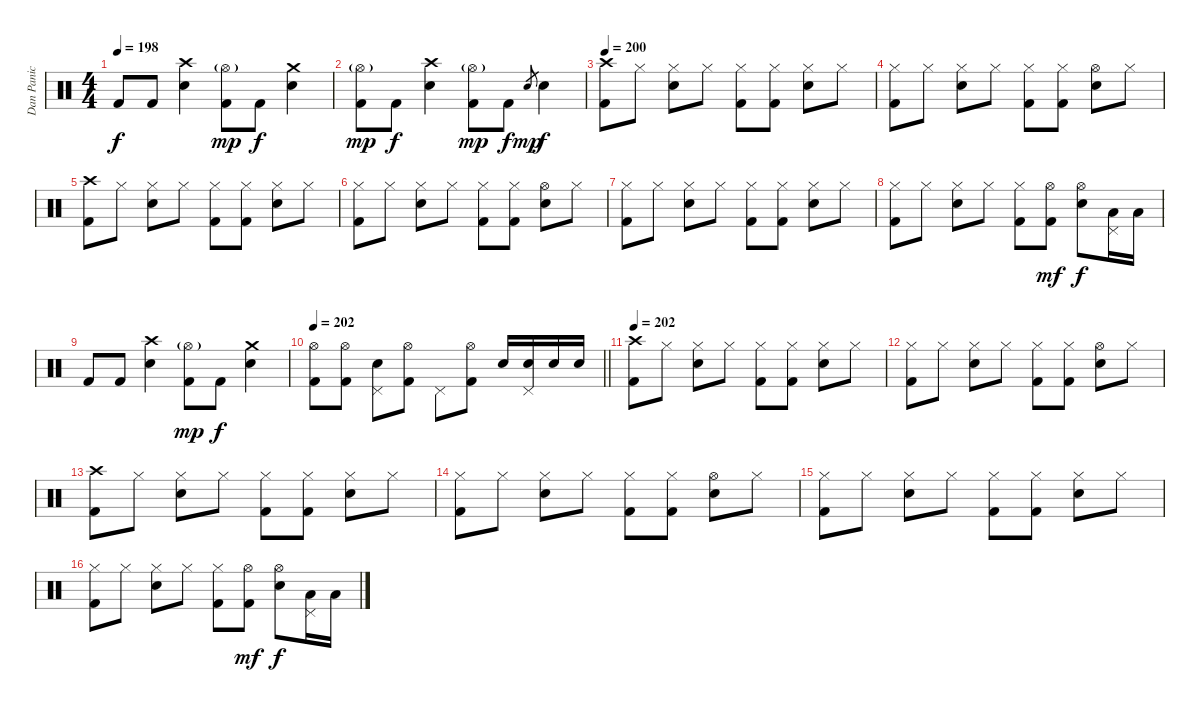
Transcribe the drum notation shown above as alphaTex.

\track ("Dan Panic" "Dan Panic") {instrument percussion}
\staff {score}
\articulation defaults
\ts (4 4)
\tempo 198
\clef neutral
\ks c "Kick (hit) 2".8{dy f} "Kick (hit) 2".8
("Crash high (hit)" "Electric Snare (hit)").4 ("Hi-Hat (open)"{g} "Kick (hit) 2").8{dy mp} "Kick (hit) 2".8{dy f} ("Crash medium (hit)" "Electric Snare (hit)").4 |
("Hi-Hat (open)"{g} "Kick (hit) 2").8{dy mp} "Kick (hit) 2".8{dy f} ("Crash high (hit)" "Electric Snare (hit)").4 ("Hi-Hat (open)"{g} "Kick (hit) 2").8{dy mp} "Kick (hit) 2".8{dy f} "Electric Snare (hit)".8{gr dy mp} "Electric Snare (hit)".4{dy f} |
\tempo 200
("Crash high (hit)" "Kick (hit) 2").8 "Hi-Hat (closed)".8 ("Hi-Hat (closed)" "Electric Snare (hit)").8 "Hi-Hat (closed)".8 ("Hi-Hat (closed)" "Kick (hit) 2").8 ("Hi-Hat (closed)" "Kick (hit) 2").8 ("Hi-Hat (closed)" "Electric Snare (hit)").8 "Hi-Hat (closed)".8 |
("Hi-Hat (closed)" "Kick (hit) 2").8 "Hi-Hat (closed)".8 ("Hi-Hat (closed)" "Electric Snare (hit)").8 "Hi-Hat (closed)".8 ("Hi-Hat (closed)" "Kick (hit) 2").8 ("Hi-Hat (closed)" "Kick (hit) 2").8 ("Hi-Hat (open)" "Electric Snare (hit)").8 "Hi-Hat (closed)".8 |
("Crash high (hit)" "Kick (hit) 2").8 "Hi-Hat (closed)".8 ("Hi-Hat (closed)" "Electric Snare (hit)").8 "Hi-Hat (closed)".8 ("Hi-Hat (closed)" "Kick (hit) 2").8 ("Hi-Hat (closed)" "Kick (hit) 2").8 ("Hi-Hat (closed)" "Electric Snare (hit)").8 "Hi-Hat (closed)".8 |
("Hi-Hat (closed)" "Kick (hit) 2").8 "Hi-Hat (closed)".8 ("Hi-Hat (closed)" "Electric Snare (hit)").8 "Hi-Hat (closed)".8 ("Hi-Hat (closed)" "Kick (hit) 2").8 ("Hi-Hat (closed)" "Kick (hit) 2").8 ("Hi-Hat (open)" "Electric Snare (hit)").8 "Hi-Hat (closed)".8 |
("Hi-Hat (closed)" "Kick (hit) 2").8 "Hi-Hat (closed)".8 ("Hi-Hat (closed)" "Electric Snare (hit)").8 "Hi-Hat (closed)".8 ("Hi-Hat (closed)" "Kick (hit) 2").8 ("Hi-Hat (closed)" "Kick (hit) 2").8 ("Hi-Hat (closed)" "Electric Snare (hit)").8 "Hi-Hat (closed)".8 |
("Hi-Hat (closed)" "Kick (hit) 2").8 "Hi-Hat (closed)".8 ("Hi-Hat (closed)" "Electric Snare (hit)").8 "Hi-Hat (closed)".8 ("Hi-Hat (closed)" "Kick (hit) 2").8 ("Hi-Hat (open)" "Kick (hit) 2").8{dy mf} ("Hi-Hat (open)" "Electric Snare (hit)").8{dy f} ("Pedal Hi-Hat (hit)" "Low Tom (hit)").16 "Low Floor Tom (hit)".16 |
"Kick (hit) 2".8 "Kick (hit) 2".8 ("Crash high (hit)" "Electric Snare (hit)").4 ("Hi-Hat (open)"{g} "Kick (hit) 2").8{dy mp} "Kick (hit) 2".8{dy f} ("Crash medium (hit)" "Electric Snare (hit)").4 |
\tempo 202
\barLineRight lightlight
("Hi-Hat (open)" "Kick (hit) 2").8 ("Hi-Hat (open)" "Kick (hit) 2").8 ("Pedal Hi-Hat (hit)" "Electric Snare (hit)").8 ("Hi-Hat (open)" "Kick (hit) 2").8 "Pedal Hi-Hat (hit)".8 ("Hi-Hat (open)" "Kick (hit) 2").8 "Electric Snare (hit)".16 ("Pedal Hi-Hat (hit)" "Electric Snare (hit)").16 "Electric Snare (hit)".16 "Electric Snare (hit)".16 |
\section ("" "")
\tempo 202
("Crash high (hit)" "Kick (hit) 2").8 "Hi-Hat (closed)".8 ("Hi-Hat (closed)" "Electric Snare (hit)").8 "Hi-Hat (closed)".8 ("Hi-Hat (closed)" "Kick (hit) 2").8 ("Hi-Hat (closed)" "Kick (hit) 2").8 ("Hi-Hat (closed)" "Electric Snare (hit)").8 "Hi-Hat (closed)".8 |
("Hi-Hat (closed)" "Kick (hit) 2").8 "Hi-Hat (closed)".8 ("Hi-Hat (closed)" "Electric Snare (hit)").8 "Hi-Hat (closed)".8 ("Hi-Hat (closed)" "Kick (hit) 2").8 ("Hi-Hat (closed)" "Kick (hit) 2").8 ("Hi-Hat (open)" "Electric Snare (hit)").8 "Hi-Hat (closed)".8 |
("Crash high (hit)" "Kick (hit) 2").8 "Hi-Hat (closed)".8 ("Hi-Hat (closed)" "Electric Snare (hit)").8 "Hi-Hat (closed)".8 ("Hi-Hat (closed)" "Kick (hit) 2").8 ("Hi-Hat (closed)" "Kick (hit) 2").8 ("Hi-Hat (closed)" "Electric Snare (hit)").8 "Hi-Hat (closed)".8 |
("Hi-Hat (closed)" "Kick (hit) 2").8 "Hi-Hat (closed)".8 ("Hi-Hat (closed)" "Electric Snare (hit)").8 "Hi-Hat (closed)".8 ("Hi-Hat (closed)" "Kick (hit) 2").8 ("Hi-Hat (closed)" "Kick (hit) 2").8 ("Hi-Hat (open)" "Electric Snare (hit)").8 "Hi-Hat (closed)".8 |
("Hi-Hat (closed)" "Kick (hit) 2").8 "Hi-Hat (closed)".8 ("Hi-Hat (closed)" "Electric Snare (hit)").8 "Hi-Hat (closed)".8 ("Hi-Hat (closed)" "Kick (hit) 2").8 ("Hi-Hat (closed)" "Kick (hit) 2").8 ("Hi-Hat (closed)" "Electric Snare (hit)").8 "Hi-Hat (closed)".8 |
("Hi-Hat (closed)" "Kick (hit) 2").8 "Hi-Hat (closed)".8 ("Hi-Hat (closed)" "Electric Snare (hit)").8 "Hi-Hat (closed)".8 ("Hi-Hat (closed)" "Kick (hit) 2").8 ("Hi-Hat (open)" "Kick (hit) 2").8{dy mf} ("Hi-Hat (open)" "Electric Snare (hit)").8{dy f} ("Pedal Hi-Hat (hit)" "Low Tom (hit)").16 "Low Floor Tom (hit)".16
